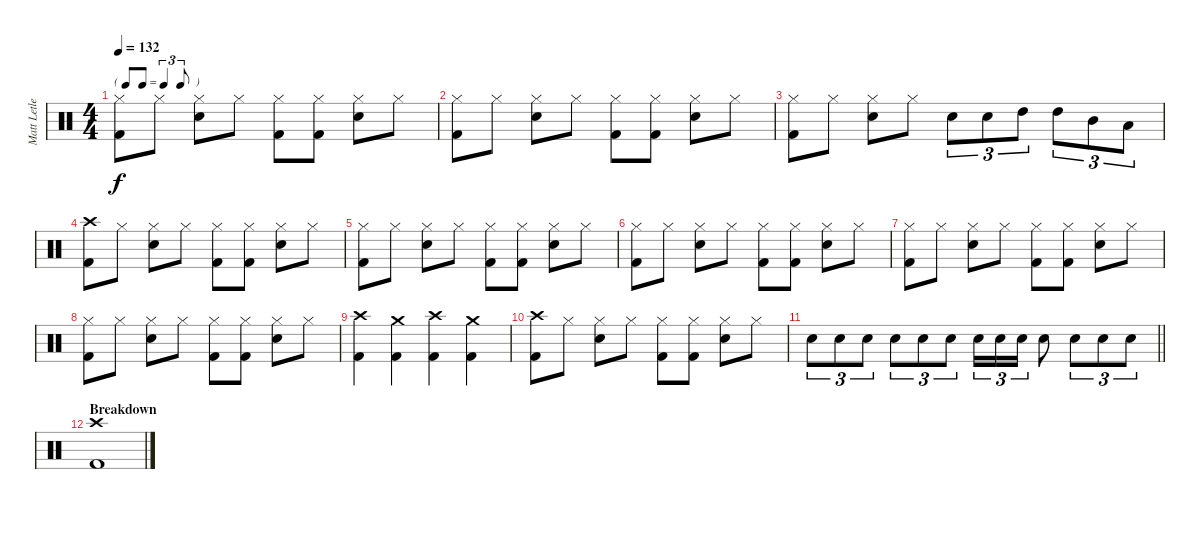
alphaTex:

\track ("Matt Letley" "Matt Letle") {instrument percussion}
\staff {score}
\articulation defaults
\ts (4 4)
\tf triplet8th
\tempo 132
\clef neutral
\ks c
("Hi-Hat (closed)" "Kick (hit) 2").8{dy f} "Hi-Hat (closed)".8 ("Hi-Hat (closed)" "Electric Snare (hit)").8 "Hi-Hat (closed)".8 ("Hi-Hat (closed)" "Kick (hit) 2").8 ("Hi-Hat (closed)" "Kick (hit) 2").8 ("Hi-Hat (closed)" "Electric Snare (hit)").8 "Hi-Hat (closed)".8 |
("Hi-Hat (closed)" "Kick (hit) 2").8 "Hi-Hat (closed)".8 ("Hi-Hat (closed)" "Electric Snare (hit)").8 "Hi-Hat (closed)".8 ("Hi-Hat (closed)" "Kick (hit) 2").8 ("Hi-Hat (closed)" "Kick (hit) 2").8 ("Hi-Hat (closed)" "Electric Snare (hit)").8 "Hi-Hat (closed)".8 |
("Hi-Hat (closed)" "Kick (hit) 2").8 "Hi-Hat (closed)".8 ("Hi-Hat (closed)" "Electric Snare (hit)").8 "Hi-Hat (closed)".8 "Electric Snare (hit)".8{tu (3 2)} "Electric Snare (hit)".8{tu (3 2)} "High Tom (hit)".8{tu (3 2)} "High Tom (hit)".8{tu (3 2)} "Mid Tom (hit)".8{tu (3 2)} "Low Tom (hit)".8{tu (3 2)} |
("Crash high (hit)" "Kick (hit) 2").8 "Hi-Hat (closed)".8 ("Hi-Hat (closed)" "Electric Snare (hit)").8 "Hi-Hat (closed)".8 ("Hi-Hat (closed)" "Kick (hit) 2").8 ("Hi-Hat (closed)" "Kick (hit) 2").8 ("Hi-Hat (closed)" "Electric Snare (hit)").8 "Hi-Hat (closed)".8 |
("Hi-Hat (closed)" "Kick (hit) 2").8 "Hi-Hat (closed)".8 ("Hi-Hat (closed)" "Electric Snare (hit)").8 "Hi-Hat (closed)".8 ("Hi-Hat (closed)" "Kick (hit) 2").8 ("Hi-Hat (closed)" "Kick (hit) 2").8 ("Hi-Hat (closed)" "Electric Snare (hit)").8 "Hi-Hat (closed)".8 |
("Hi-Hat (closed)" "Kick (hit) 2").8 "Hi-Hat (closed)".8 ("Hi-Hat (closed)" "Electric Snare (hit)").8 "Hi-Hat (closed)".8 ("Hi-Hat (closed)" "Kick (hit) 2").8 ("Hi-Hat (closed)" "Kick (hit) 2").8 ("Hi-Hat (closed)" "Electric Snare (hit)").8 "Hi-Hat (closed)".8 |
("Hi-Hat (closed)" "Kick (hit) 2").8 "Hi-Hat (closed)".8 ("Hi-Hat (closed)" "Electric Snare (hit)").8 "Hi-Hat (closed)".8 ("Hi-Hat (closed)" "Kick (hit) 2").8 ("Hi-Hat (closed)" "Kick (hit) 2").8 ("Hi-Hat (closed)" "Electric Snare (hit)").8 "Hi-Hat (closed)".8 |
("Hi-Hat (closed)" "Kick (hit) 2").8 "Hi-Hat (closed)".8 ("Hi-Hat (closed)" "Electric Snare (hit)").8 "Hi-Hat (closed)".8 ("Hi-Hat (closed)" "Kick (hit) 2").8 ("Hi-Hat (closed)" "Kick (hit) 2").8 ("Hi-Hat (closed)" "Electric Snare (hit)").8 "Hi-Hat (closed)".8 |
("Crash high (hit)" "Kick (hit) 2").4 ("Crash medium (hit)" "Kick (hit) 2").4 ("Crash high (hit)" "Kick (hit) 2").4 ("Crash medium (hit)" "Kick (hit) 2").4 |
("Crash high (hit)" "Kick (hit) 2").8 "Hi-Hat (closed)".8 ("Hi-Hat (closed)" "Electric Snare (hit)").8 "Hi-Hat (closed)".8 ("Hi-Hat (closed)" "Kick (hit) 2").8 ("Hi-Hat (closed)" "Kick (hit) 2").8 ("Hi-Hat (closed)" "Electric Snare (hit)").8 "Hi-Hat (closed)".8 |
\barLineRight lightlight "Electric Snare (hit)".8{tu (3 2)} "Electric Snare (hit)".8{tu (3 2)} "Electric Snare (hit)".8{tu (3 2)} "Electric Snare (hit)".8{tu (3 2)} "Electric Snare (hit)".8{tu (3 2)} "Electric Snare (hit)".8{tu (3 2)} "Electric Snare (hit)".16{tu (3 2)} "Electric Snare (hit)".16{tu (3 2)} "Electric Snare (hit)".16{tu (3 2)} "Electric Snare (hit)".8 "Electric Snare (hit)".8{tu (3 2)} "Electric Snare (hit)".8{tu (3 2)} "Electric Snare (hit)".8{tu (3 2)}
|
\section ("" "Breakdown")
("Crash high (hit)" "Kick (hit) 2").1
